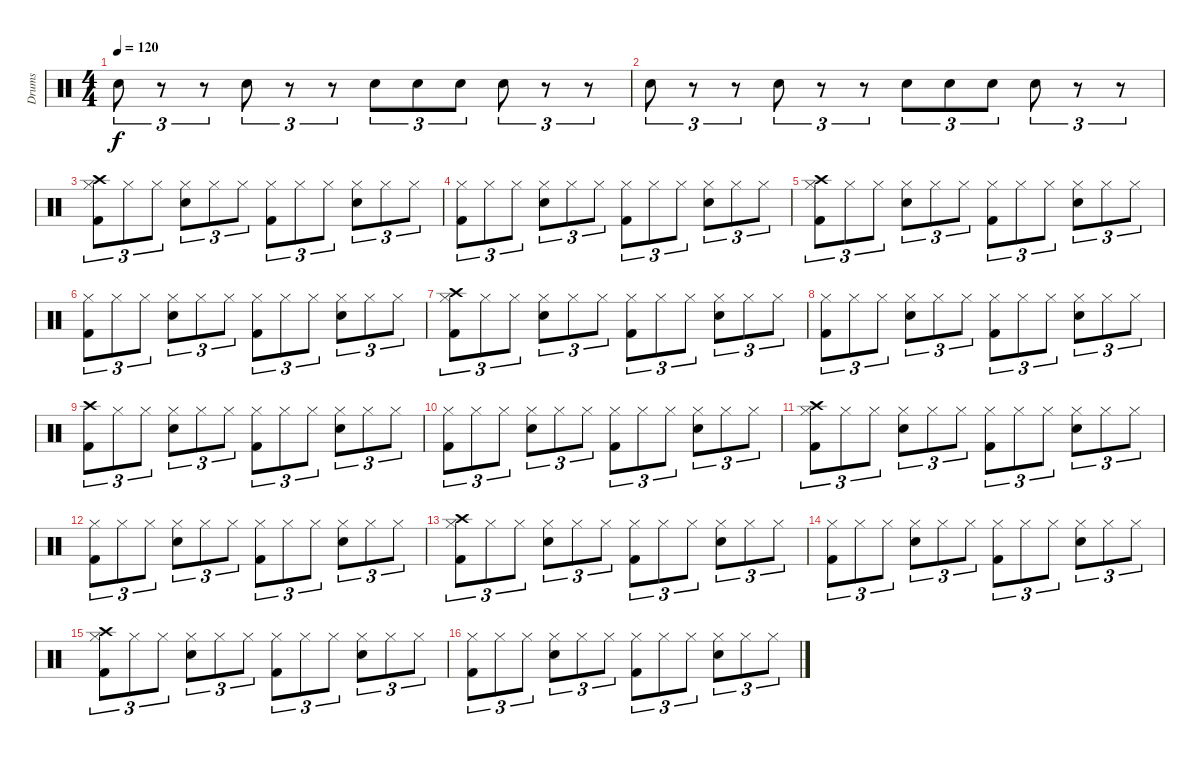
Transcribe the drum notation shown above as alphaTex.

\track ("Drums" "Drums") {instrument percussion}
\staff {score}
\articulation defaults
\ts (4 4)
\tempo 120
\clef neutral
\ks c "Snare (hit) 2".8{tu (3 2) dy f}
r.8{tu (3 2)} r.8{tu (3 2)} "Snare (hit) 2".8{tu (3 2)} r.8{tu (3 2)} r.8{tu (3 2)} "Snare (hit) 2".8{tu (3 2)} "Snare (hit) 2".8{tu (3 2)} "Snare (hit) 2".8{tu (3 2)} "Snare (hit) 2".8{tu (3 2)} r.8{tu (3 2)} r.8{tu (3 2)} |
"Snare (hit) 2".8{tu (3 2)} r.8{tu (3 2)} r.8{tu (3 2)} "Snare (hit) 2".8{tu (3 2)} r.8{tu (3 2)} r.8{tu (3 2)} "Snare (hit) 2".8{tu (3 2)} "Snare (hit) 2".8{tu (3 2)} "Snare (hit) 2".8{tu (3 2)} "Snare (hit) 2".8{tu (3 2)} r.8{tu (3 2)} r.8{tu (3 2)} |
("Kick (hit) 2" "Crash high (hit)" "Hi-Hat (closed)").8{tu (3 2)} "Hi-Hat (closed)".8{tu (3 2)} "Hi-Hat (closed)".8{tu (3 2)} ("Snare (hit) 2" "Hi-Hat (closed)").8{tu (3 2)} "Hi-Hat (closed)".8{tu (3 2)} "Hi-Hat (closed)".8{tu (3 2)} ("Kick (hit) 2" "Hi-Hat (closed)").8{tu (3 2)} "Hi-Hat (closed)".8{tu (3 2)} "Hi-Hat (closed)".8{tu (3 2)} ("Snare (hit) 2" "Hi-Hat (closed)").8{tu (3 2)} "Hi-Hat (closed)".8{tu (3 2)} "Hi-Hat (closed)".8{tu (3 2)} |
("Kick (hit) 2" "Hi-Hat (closed)").8{tu (3 2)} "Hi-Hat (closed)".8{tu (3 2)} "Hi-Hat (closed)".8{tu (3 2)} ("Snare (hit) 2" "Hi-Hat (closed)").8{tu (3 2)} "Hi-Hat (closed)".8{tu (3 2)} "Hi-Hat (closed)".8{tu (3 2)} ("Kick (hit) 2" "Hi-Hat (closed)").8{tu (3 2)} "Hi-Hat (closed)".8{tu (3 2)} "Hi-Hat (closed)".8{tu (3 2)} ("Snare (hit) 2" "Hi-Hat (closed)").8{tu (3 2)} "Hi-Hat (closed)".8{tu (3 2)} "Hi-Hat (closed)".8{tu (3 2)} |
("Kick (hit) 2" "Crash high (hit)" "Hi-Hat (closed)").8{tu (3 2)} "Hi-Hat (closed)".8{tu (3 2)} "Hi-Hat (closed)".8{tu (3 2)} ("Snare (hit) 2" "Hi-Hat (closed)").8{tu (3 2)} "Hi-Hat (closed)".8{tu (3 2)} "Hi-Hat (closed)".8{tu (3 2)} ("Kick (hit) 2" "Hi-Hat (closed)").8{tu (3 2)} "Hi-Hat (closed)".8{tu (3 2)} "Hi-Hat (closed)".8{tu (3 2)} ("Snare (hit) 2" "Hi-Hat (closed)").8{tu (3 2)} "Hi-Hat (closed)".8{tu (3 2)} "Hi-Hat (closed)".8{tu (3 2)} |
("Kick (hit) 2" "Hi-Hat (closed)").8{tu (3 2)} "Hi-Hat (closed)".8{tu (3 2)} "Hi-Hat (closed)".8{tu (3 2)} ("Snare (hit) 2" "Hi-Hat (closed)").8{tu (3 2)} "Hi-Hat (closed)".8{tu (3 2)} "Hi-Hat (closed)".8{tu (3 2)} ("Kick (hit) 2" "Hi-Hat (closed)").8{tu (3 2)} "Hi-Hat (closed)".8{tu (3 2)} "Hi-Hat (closed)".8{tu (3 2)} ("Snare (hit) 2" "Hi-Hat (closed)").8{tu (3 2)} "Hi-Hat (closed)".8{tu (3 2)} "Hi-Hat (closed)".8{tu (3 2)} |
("Kick (hit) 2" "Crash high (hit)" "Hi-Hat (closed)").8{tu (3 2)} "Hi-Hat (closed)".8{tu (3 2)} "Hi-Hat (closed)".8{tu (3 2)} ("Snare (hit) 2" "Hi-Hat (closed)").8{tu (3 2)} "Hi-Hat (closed)".8{tu (3 2)} "Hi-Hat (closed)".8{tu (3 2)} ("Kick (hit) 2" "Hi-Hat (closed)").8{tu (3 2)} "Hi-Hat (closed)".8{tu (3 2)} "Hi-Hat (closed)".8{tu (3 2)} ("Snare (hit) 2" "Hi-Hat (closed)").8{tu (3 2)} "Hi-Hat (closed)".8{tu (3 2)} "Hi-Hat (closed)".8{tu (3 2)} |
("Kick (hit) 2" "Hi-Hat (closed)").8{tu (3 2)} "Hi-Hat (closed)".8{tu (3 2)} "Hi-Hat (closed)".8{tu (3 2)} ("Snare (hit) 2" "Hi-Hat (closed)").8{tu (3 2)} "Hi-Hat (closed)".8{tu (3 2)} "Hi-Hat (closed)".8{tu (3 2)} ("Kick (hit) 2" "Hi-Hat (closed)").8{tu (3 2)} "Hi-Hat (closed)".8{tu (3 2)} "Hi-Hat (closed)".8{tu (3 2)} ("Snare (hit) 2" "Hi-Hat (closed)").8{tu (3 2)} "Hi-Hat (closed)".8{tu (3 2)} "Hi-Hat (closed)".8{tu (3 2)} |
("Kick (hit) 2" "Crash high (hit)").8{tu (3 2)} "Hi-Hat (closed)".8{tu (3 2)} "Hi-Hat (closed)".8{tu (3 2)} ("Snare (hit) 2" "Hi-Hat (closed)").8{tu (3 2)} "Hi-Hat (closed)".8{tu (3 2)} "Hi-Hat (closed)".8{tu (3 2)} ("Kick (hit) 2" "Hi-Hat (closed)").8{tu (3 2)} "Hi-Hat (closed)".8{tu (3 2)} "Hi-Hat (closed)".8{tu (3 2)} ("Snare (hit) 2" "Hi-Hat (closed)").8{tu (3 2)} "Hi-Hat (closed)".8{tu (3 2)} "Hi-Hat (closed)".8{tu (3 2)} |
("Kick (hit) 2" "Hi-Hat (closed)").8{tu (3 2)} "Hi-Hat (closed)".8{tu (3 2)} "Hi-Hat (closed)".8{tu (3 2)} ("Snare (hit) 2" "Hi-Hat (closed)").8{tu (3 2)} "Hi-Hat (closed)".8{tu (3 2)} "Hi-Hat (closed)".8{tu (3 2)} ("Kick (hit) 2" "Hi-Hat (closed)").8{tu (3 2)} "Hi-Hat (closed)".8{tu (3 2)} "Hi-Hat (closed)".8{tu (3 2)} ("Snare (hit) 2" "Hi-Hat (closed)").8{tu (3 2)} "Hi-Hat (closed)".8{tu (3 2)} "Hi-Hat (closed)".8{tu (3 2)} |
("Kick (hit) 2" "Crash high (hit)" "Hi-Hat (closed)").8{tu (3 2)} "Hi-Hat (closed)".8{tu (3 2)} "Hi-Hat (closed)".8{tu (3 2)} ("Snare (hit) 2" "Hi-Hat (closed)").8{tu (3 2)} "Hi-Hat (closed)".8{tu (3 2)} "Hi-Hat (closed)".8{tu (3 2)} ("Kick (hit) 2" "Hi-Hat (closed)").8{tu (3 2)} "Hi-Hat (closed)".8{tu (3 2)} "Hi-Hat (closed)".8{tu (3 2)} ("Snare (hit) 2" "Hi-Hat (closed)").8{tu (3 2)} "Hi-Hat (closed)".8{tu (3 2)} "Hi-Hat (closed)".8{tu (3 2)} |
("Kick (hit) 2" "Hi-Hat (closed)").8{tu (3 2)} "Hi-Hat (closed)".8{tu (3 2)} "Hi-Hat (closed)".8{tu (3 2)} ("Snare (hit) 2" "Hi-Hat (closed)").8{tu (3 2)} "Hi-Hat (closed)".8{tu (3 2)} "Hi-Hat (closed)".8{tu (3 2)} ("Kick (hit) 2" "Hi-Hat (closed)").8{tu (3 2)} "Hi-Hat (closed)".8{tu (3 2)} "Hi-Hat (closed)".8{tu (3 2)} ("Snare (hit) 2" "Hi-Hat (closed)").8{tu (3 2)} "Hi-Hat (closed)".8{tu (3 2)} "Hi-Hat (closed)".8{tu (3 2)} |
("Kick (hit) 2" "Crash high (hit)" "Hi-Hat (closed)").8{tu (3 2)} "Hi-Hat (closed)".8{tu (3 2)} "Hi-Hat (closed)".8{tu (3 2)} ("Snare (hit) 2" "Hi-Hat (closed)").8{tu (3 2)} "Hi-Hat (closed)".8{tu (3 2)} "Hi-Hat (closed)".8{tu (3 2)} ("Kick (hit) 2" "Hi-Hat (closed)").8{tu (3 2)} "Hi-Hat (closed)".8{tu (3 2)} "Hi-Hat (closed)".8{tu (3 2)} ("Snare (hit) 2" "Hi-Hat (closed)").8{tu (3 2)} "Hi-Hat (closed)".8{tu (3 2)} "Hi-Hat (closed)".8{tu (3 2)} |
("Kick (hit) 2" "Hi-Hat (closed)").8{tu (3 2)} "Hi-Hat (closed)".8{tu (3 2)} "Hi-Hat (closed)".8{tu (3 2)} ("Snare (hit) 2" "Hi-Hat (closed)").8{tu (3 2)} "Hi-Hat (closed)".8{tu (3 2)} "Hi-Hat (closed)".8{tu (3 2)} ("Kick (hit) 2" "Hi-Hat (closed)").8{tu (3 2)} "Hi-Hat (closed)".8{tu (3 2)} "Hi-Hat (closed)".8{tu (3 2)} ("Snare (hit) 2" "Hi-Hat (closed)").8{tu (3 2)} "Hi-Hat (closed)".8{tu (3 2)} "Hi-Hat (closed)".8{tu (3 2)} |
("Kick (hit) 2" "Crash high (hit)" "Hi-Hat (closed)").8{tu (3 2)} "Hi-Hat (closed)".8{tu (3 2)} "Hi-Hat (closed)".8{tu (3 2)} ("Snare (hit) 2" "Hi-Hat (closed)").8{tu (3 2)} "Hi-Hat (closed)".8{tu (3 2)} "Hi-Hat (closed)".8{tu (3 2)} ("Kick (hit) 2" "Hi-Hat (closed)").8{tu (3 2)} "Hi-Hat (closed)".8{tu (3 2)} "Hi-Hat (closed)".8{tu (3 2)} ("Snare (hit) 2" "Hi-Hat (closed)").8{tu (3 2)} "Hi-Hat (closed)".8{tu (3 2)} "Hi-Hat (closed)".8{tu (3 2)} |
("Kick (hit) 2" "Hi-Hat (closed)").8{tu (3 2)} "Hi-Hat (closed)".8{tu (3 2)} "Hi-Hat (closed)".8{tu (3 2)} ("Snare (hit) 2" "Hi-Hat (closed)").8{tu (3 2)} "Hi-Hat (closed)".8{tu (3 2)} "Hi-Hat (closed)".8{tu (3 2)} ("Kick (hit) 2" "Hi-Hat (closed)").8{tu (3 2)} "Hi-Hat (closed)".8{tu (3 2)} "Hi-Hat (closed)".8{tu (3 2)} ("Snare (hit) 2" "Hi-Hat (closed)").8{tu (3 2)} "Hi-Hat (closed)".8{tu (3 2)} "Hi-Hat (closed)".8{tu (3 2)}
